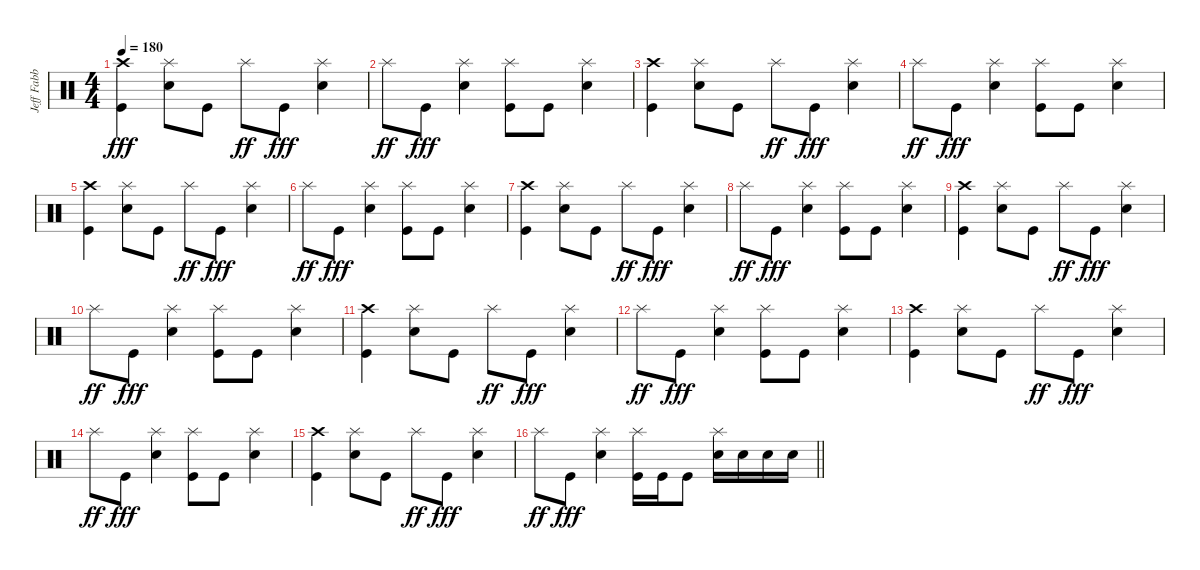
\track ("Jeff Fabb (Drums)" "Jeff Fabb ") {instrument percussion}
\staff {score}
\articulation defaults
\ts (4 4)
\tempo 180
\clef neutral
\ks c
("Crash high (hit)" "Kick (hit)").4{dy fff} ("Splash (hit)" "Electric Snare (hit)").8 "Kick (hit)".8 "Splash (hit)".8{dy ff} "Kick (hit)".8{dy fff} ("Splash (hit)" "Electric Snare (hit)").4 |
"Splash (hit)".8{dy ff} "Kick (hit)".8{dy fff} ("Splash (hit)" "Electric Snare (hit)").4 ("Splash (hit)" "Kick (hit)").8 "Kick (hit)".8 ("Splash (hit)" "Electric Snare (hit)").4 |
("Crash high (hit)" "Kick (hit)").4 ("Splash (hit)" "Electric Snare (hit)").8 "Kick (hit)".8 "Splash (hit)".8{dy ff} "Kick (hit)".8{dy fff} ("Splash (hit)" "Electric Snare (hit)").4 |
"Splash (hit)".8{dy ff} "Kick (hit)".8{dy fff} ("Splash (hit)" "Electric Snare (hit)").4 ("Splash (hit)" "Kick (hit)").8 "Kick (hit)".8 ("Splash (hit)" "Electric Snare (hit)").4 |
("Crash high (hit)" "Kick (hit)").4 ("Splash (hit)" "Electric Snare (hit)").8 "Kick (hit)".8 "Splash (hit)".8{dy ff} "Kick (hit)".8{dy fff} ("Splash (hit)" "Electric Snare (hit)").4 |
"Splash (hit)".8{dy ff} "Kick (hit)".8{dy fff} ("Splash (hit)" "Electric Snare (hit)").4 ("Splash (hit)" "Kick (hit)").8 "Kick (hit)".8 ("Splash (hit)" "Electric Snare (hit)").4 |
("Crash high (hit)" "Kick (hit)").4 ("Splash (hit)" "Electric Snare (hit)").8 "Kick (hit)".8 "Splash (hit)".8{dy ff} "Kick (hit)".8{dy fff} ("Splash (hit)" "Electric Snare (hit)").4 |
"Splash (hit)".8{dy ff} "Kick (hit)".8{dy fff} ("Splash (hit)" "Electric Snare (hit)").4 ("Splash (hit)" "Kick (hit)").8 "Kick (hit)".8 ("Splash (hit)" "Electric Snare (hit)").4 |
("Crash high (hit)" "Kick (hit)").4 ("Splash (hit)" "Electric Snare (hit)").8 "Kick (hit)".8 "Splash (hit)".8{dy ff} "Kick (hit)".8{dy fff} ("Splash (hit)" "Electric Snare (hit)").4 |
"Splash (hit)".8{dy ff} "Kick (hit)".8{dy fff} ("Splash (hit)" "Electric Snare (hit)").4 ("Splash (hit)" "Kick (hit)").8 "Kick (hit)".8 ("Splash (hit)" "Electric Snare (hit)").4 |
("Crash high (hit)" "Kick (hit)").4 ("Splash (hit)" "Electric Snare (hit)").8 "Kick (hit)".8 "Splash (hit)".8{dy ff} "Kick (hit)".8{dy fff} ("Splash (hit)" "Electric Snare (hit)").4 |
"Splash (hit)".8{dy ff} "Kick (hit)".8{dy fff} ("Splash (hit)" "Electric Snare (hit)").4 ("Splash (hit)" "Kick (hit)").8 "Kick (hit)".8 ("Splash (hit)" "Electric Snare (hit)").4 |
("Crash high (hit)" "Kick (hit)").4 ("Splash (hit)" "Electric Snare (hit)").8 "Kick (hit)".8 "Splash (hit)".8{dy ff} "Kick (hit)".8{dy fff} ("Splash (hit)" "Electric Snare (hit)").4 |
"Splash (hit)".8{dy ff} "Kick (hit)".8{dy fff} ("Splash (hit)" "Electric Snare (hit)").4 ("Splash (hit)" "Kick (hit)").8 "Kick (hit)".8 ("Splash (hit)" "Electric Snare (hit)").4 |
("Crash high (hit)" "Kick (hit)").4 ("Splash (hit)" "Electric Snare (hit)").8 "Kick (hit)".8 "Splash (hit)".8{dy ff} "Kick (hit)".8{dy fff} ("Splash (hit)" "Electric Snare (hit)").4 |
\barLineRight lightlight "Splash (hit)".8{dy ff} "Kick (hit)".8{dy fff}
("Splash (hit)" "Electric Snare (hit)").4 ("Splash (hit)" "Kick (hit)").16 "Kick (hit)".16 "Kick (hit)".8 ("Splash (hit)" "Electric Snare (hit)").16 "Electric Snare (hit)".16 "Electric Snare (hit)".16 "Electric Snare (hit)".16
